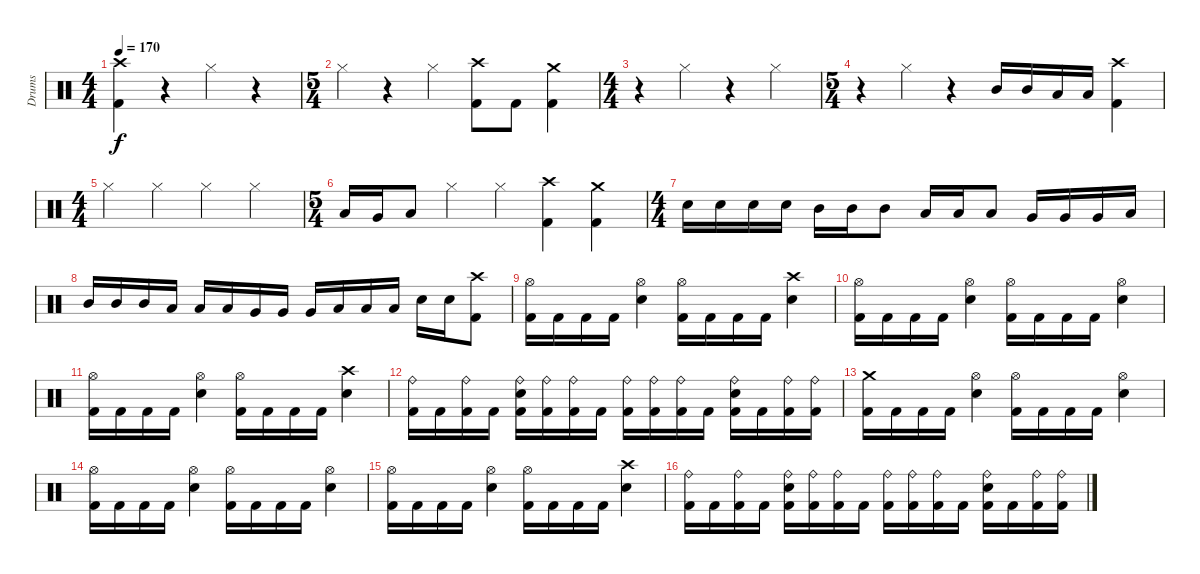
\track ("Drums" "Drums") {instrument percussion}
\staff {score}
\articulation defaults
\ts (4 4)
\tempo 170
\clef neutral
\ks c
("Kick (hit) 2" "Crash high (hit)").4{dy f} r.4 "Hi-Hat (closed)".4 r.4 |
\ts (5 4)
"Hi-Hat (closed)".4 r.4 "Hi-Hat (closed)".4 ("Crash high (hit)" "Kick (hit) 2").8 "Kick (hit) 2".8 ("Crash medium (hit)" "Kick (hit) 2").4 |
\ts (4 4)
r.4 "Hi-Hat (closed)".4 r.4 "Hi-Hat (closed)".4 |
\ts (5 4)
r.4 "Hi-Hat (closed)".4 r.4 "Mid Tom (hit)".16 "Mid Tom (hit)".16 "Low Tom (hit)".16 "Low Tom (hit)".16 ("Kick (hit) 2" "Crash high (hit)").4 |
\ts (4 4)
"Hi-Hat (closed)".4 "Hi-Hat (closed)".4 "Hi-Hat (closed)".4 "Hi-Hat (closed)".4 |
\ts (5 4)
"Low Tom (hit)".16 "Very Low Tom (hit)".16 "Low Floor Tom (hit)".8 "Hi-Hat (closed)".4 "Hi-Hat (closed)".4 ("Kick (hit) 2" "Crash high (hit)").4 ("Kick (hit) 2" "Crash medium (hit)").4 |
\ts (4 4)
"Snare (hit) 2".16 "Snare (hit) 2".16 "Snare (hit) 2".16 "Snare (hit) 2".16 "Mid Tom (hit)".16 "Mid Tom (hit)".16 "Mid Tom (hit)".8 "Low Tom (hit)".16 "Low Tom (hit)".16 "Low Tom (hit)".8 "Very Low Tom (hit)".16 "Very Low Tom (hit)".16 "Very Low Tom (hit)".16 "Low Floor Tom (hit)".16 |
"Mid Tom (hit)".16 "Mid Tom (hit)".16 "Mid Tom (hit)".16 "Low Tom (hit)".16 "Low Tom (hit)".16 "Low Tom (hit)".16 "Very Low Tom (hit)".16 "Very Low Tom (hit)".16 "Very Low Tom (hit)".16 "Low Floor Tom (hit)".16 "Low Floor Tom (hit)".16 "Low Floor Tom (hit)".16 "Snare (hit) 2".16 "Snare (hit) 2".16 ("Kick (hit) 2" "Crash high (hit)").8 |
("Kick (hit) 2" "Hi-Hat (open)").16 "Kick (hit) 2".16 "Kick (hit) 2".16 "Kick (hit) 2".16 ("Snare (hit) 2" "Hi-Hat (open)").4 ("Kick (hit) 2" "Hi-Hat (open)").16 "Kick (hit) 2".16 "Kick (hit) 2".16 "Kick (hit) 2".16 ("Snare (hit) 2" "Crash high (hit)").4 |
("Kick (hit) 2" "Hi-Hat (open)").16 "Kick (hit) 2".16 "Kick (hit) 2".16 "Kick (hit) 2".16 ("Snare (hit) 2" "Hi-Hat (open)").4 ("Kick (hit) 2" "Hi-Hat (open)").16 "Kick (hit) 2".16 "Kick (hit) 2".16 "Kick (hit) 2".16 ("Snare (hit) 2" "Hi-Hat (open)").4 |
("Kick (hit) 2" "Hi-Hat (open)").16 "Kick (hit) 2".16 "Kick (hit) 2".16 "Kick (hit) 2".16 ("Snare (hit) 2" "Hi-Hat (open)").4 ("Kick (hit) 2" "Hi-Hat (open)").16 "Kick (hit) 2".16 "Kick (hit) 2".16 "Kick (hit) 2".16 ("Snare (hit) 2" "Crash high (hit)").4 |
("Kick (hit) 2" "Ride (bell)").16 "Kick (hit) 2".16 ("Kick (hit) 2" "Ride (bell)").16 "Kick (hit) 2".16 ("Kick (hit) 2" "Ride (bell)" "Snare (hit) 2").16 ("Kick (hit) 2" "Ride (bell)").16 ("Kick (hit) 2" "Ride (bell)").16 "Kick (hit) 2".16 ("Kick (hit) 2" "Ride (bell)").16 ("Kick (hit) 2" "Ride (bell)").16 ("Kick (hit) 2" "Ride (bell)").16 "Kick (hit) 2".16 ("Kick (hit) 2" "Ride (bell)" "Snare (hit) 2").16 "Kick (hit) 2".16 ("Kick (hit) 2" "Ride (bell)").16 ("Kick (hit) 2" "Ride (bell)").16 |
("Kick (hit) 2" "Crash medium (hit)").16 "Kick (hit) 2".16 "Kick (hit) 2".16 "Kick (hit) 2".16 ("Snare (hit) 2" "Hi-Hat (open)").4 ("Kick (hit) 2" "Hi-Hat (open)").16 "Kick (hit) 2".16 "Kick (hit) 2".16 "Kick (hit) 2".16 ("Snare (hit) 2" "Hi-Hat (open)").4 |
("Kick (hit) 2" "Hi-Hat (open)").16 "Kick (hit) 2".16 "Kick (hit) 2".16 "Kick (hit) 2".16 ("Snare (hit) 2" "Hi-Hat (open)").4 ("Kick (hit) 2" "Hi-Hat (open)").16 "Kick (hit) 2".16 "Kick (hit) 2".16 "Kick (hit) 2".16 ("Snare (hit) 2" "Hi-Hat (open)").4 |
("Kick (hit) 2" "Hi-Hat (open)").16 "Kick (hit) 2".16 "Kick (hit) 2".16 "Kick (hit) 2".16 ("Snare (hit) 2" "Hi-Hat (open)").4 ("Kick (hit) 2" "Hi-Hat (open)").16 "Kick (hit) 2".16 "Kick (hit) 2".16 "Kick (hit) 2".16 ("Snare (hit) 2" "Crash high (hit)").4 |
("Kick (hit) 2" "Ride (bell)").16 "Kick (hit) 2".16 ("Kick (hit) 2" "Ride (bell)").16 "Kick (hit) 2".16 ("Kick (hit) 2" "Ride (bell)" "Snare (hit) 2").16 ("Kick (hit) 2" "Ride (bell)").16 ("Kick (hit) 2" "Ride (bell)").16 "Kick (hit) 2".16 ("Kick (hit) 2" "Ride (bell)").16 ("Kick (hit) 2" "Ride (bell)").16 ("Kick (hit) 2" "Ride (bell)").16 "Kick (hit) 2".16 ("Kick (hit) 2" "Ride (bell)" "Snare (hit) 2").16 "Kick (hit) 2".16 ("Kick (hit) 2" "Ride (bell)").16 ("Kick (hit) 2" "Ride (bell)").16
